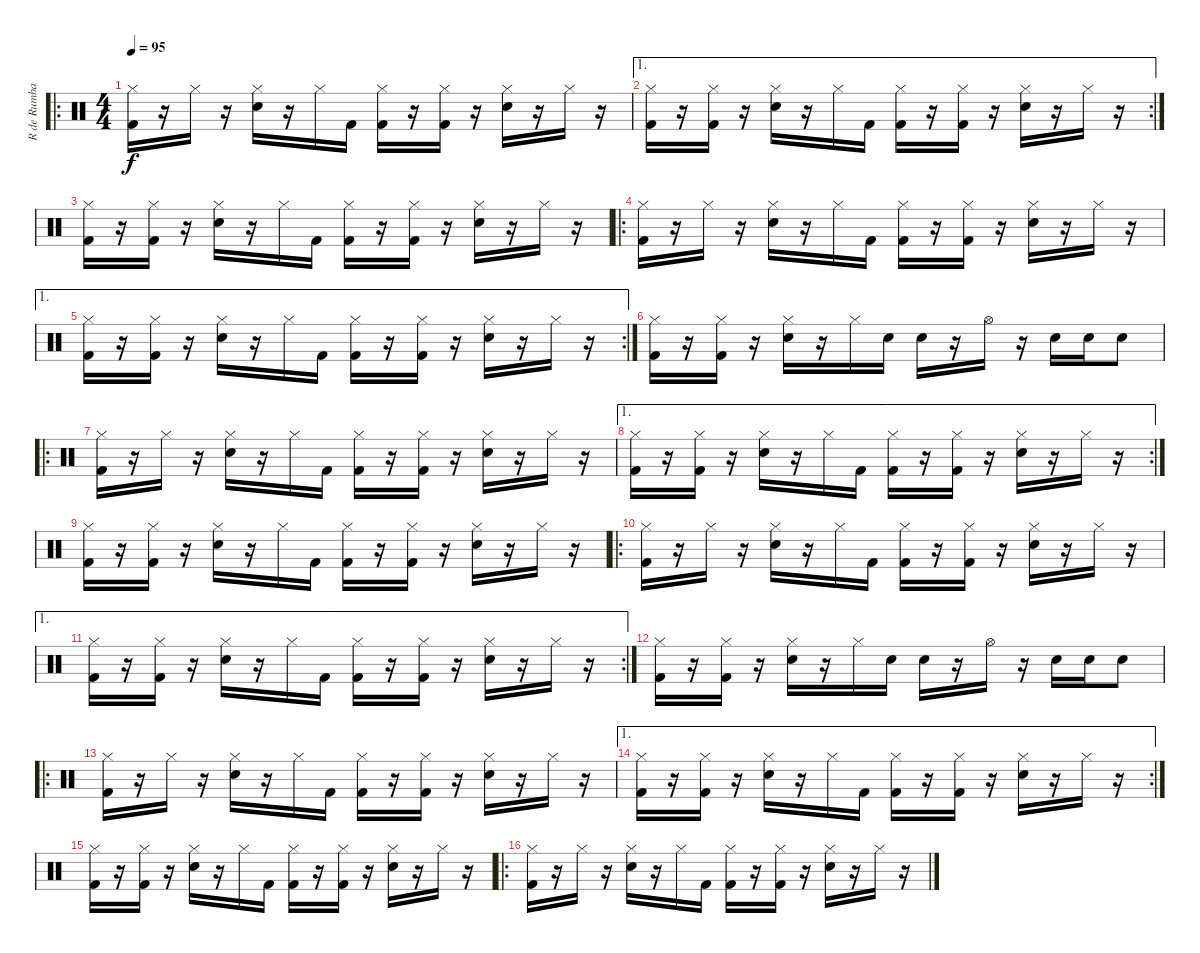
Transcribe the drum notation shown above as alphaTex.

\track ("R de Rumba" "R de Rumba") {instrument percussion}
\staff {score}
\articulation defaults
\ro
\ts (4 4)
\tempo 95
\clef neutral
\ks c
("Hi-Hat (closed)" "Kick (hit) 2").16{dy f} r.16 "Hi-Hat (closed)".16 r.16 ("Hi-Hat (closed)" "Snare (hit) 2").16 r.16 "Hi-Hat (closed)".16 "Kick (hit) 2".16 ("Hi-Hat (closed)" "Kick (hit) 2").16 r.16 ("Hi-Hat (closed)" "Kick (hit) 2").16 r.16 ("Hi-Hat (closed)" "Snare (hit) 2").16 r.16 "Hi-Hat (closed)".16 r.16 |
\ae 1
\rc 2
("Hi-Hat (closed)" "Kick (hit) 2").16 r.16 ("Hi-Hat (closed)" "Kick (hit) 2").16 r.16 ("Hi-Hat (closed)" "Snare (hit) 2").16 r.16 "Hi-Hat (closed)".16 "Kick (hit) 2".16 ("Hi-Hat (closed)" "Kick (hit) 2").16 r.16 ("Hi-Hat (closed)" "Kick (hit) 2").16 r.16 ("Hi-Hat (closed)" "Snare (hit) 2").16 r.16 "Hi-Hat (closed)".16 r.16 |
("Hi-Hat (closed)" "Kick (hit) 2").16 r.16 ("Hi-Hat (closed)" "Kick (hit) 2").16 r.16 ("Hi-Hat (closed)" "Snare (hit) 2").16 r.16 "Hi-Hat (closed)".16 "Kick (hit) 2".16 ("Hi-Hat (closed)" "Kick (hit) 2").16 r.16 ("Hi-Hat (closed)" "Kick (hit) 2").16 r.16 ("Hi-Hat (closed)" "Snare (hit) 2").16 r.16 "Hi-Hat (closed)".16 r.16 |
\ro
("Hi-Hat (closed)" "Kick (hit) 2").16 r.16 "Hi-Hat (closed)".16 r.16 ("Hi-Hat (closed)" "Snare (hit) 2").16 r.16 "Hi-Hat (closed)".16 "Kick (hit) 2".16 ("Hi-Hat (closed)" "Kick (hit) 2").16 r.16 ("Hi-Hat (closed)" "Kick (hit) 2").16 r.16 ("Hi-Hat (closed)" "Snare (hit) 2").16 r.16 "Hi-Hat (closed)".16 r.16 |
\ae 1
\rc 2
("Hi-Hat (closed)" "Kick (hit) 2").16 r.16 ("Hi-Hat (closed)" "Kick (hit) 2").16 r.16 ("Hi-Hat (closed)" "Snare (hit) 2").16 r.16 "Hi-Hat (closed)".16 "Kick (hit) 2".16 ("Hi-Hat (closed)" "Kick (hit) 2").16 r.16 ("Hi-Hat (closed)" "Kick (hit) 2").16 r.16 ("Hi-Hat (closed)" "Snare (hit) 2").16 r.16 "Hi-Hat (closed)".16 r.16 |
("Hi-Hat (closed)" "Kick (hit) 2").16 r.16 ("Hi-Hat (closed)" "Kick (hit) 2").16 r.16 ("Hi-Hat (closed)" "Snare (hit) 2").16 r.16 "Hi-Hat (closed)".16 "Snare (hit) 2".16 "Snare (hit) 2".16 r.16 "Hi-Hat (open)".16 r.16 "Snare (hit) 2".16 "Snare (hit) 2".16 "Snare (hit) 2".8 |
\ro
("Hi-Hat (closed)" "Kick (hit) 2").16 r.16 "Hi-Hat (closed)".16 r.16 ("Hi-Hat (closed)" "Snare (hit) 2").16 r.16 "Hi-Hat (closed)".16 "Kick (hit) 2".16 ("Hi-Hat (closed)" "Kick (hit) 2").16 r.16 ("Hi-Hat (closed)" "Kick (hit) 2").16 r.16 ("Hi-Hat (closed)" "Snare (hit) 2").16 r.16 "Hi-Hat (closed)".16 r.16 |
\ae 1
\rc 2
("Hi-Hat (closed)" "Kick (hit) 2").16 r.16 ("Hi-Hat (closed)" "Kick (hit) 2").16 r.16 ("Hi-Hat (closed)" "Snare (hit) 2").16 r.16 "Hi-Hat (closed)".16 "Kick (hit) 2".16 ("Hi-Hat (closed)" "Kick (hit) 2").16 r.16 ("Hi-Hat (closed)" "Kick (hit) 2").16 r.16 ("Hi-Hat (closed)" "Snare (hit) 2").16 r.16 "Hi-Hat (closed)".16 r.16 |
("Hi-Hat (closed)" "Kick (hit) 2").16 r.16 ("Hi-Hat (closed)" "Kick (hit) 2").16 r.16 ("Hi-Hat (closed)" "Snare (hit) 2").16 r.16 "Hi-Hat (closed)".16 "Kick (hit) 2".16 ("Hi-Hat (closed)" "Kick (hit) 2").16 r.16 ("Hi-Hat (closed)" "Kick (hit) 2").16 r.16 ("Hi-Hat (closed)" "Snare (hit) 2").16 r.16 "Hi-Hat (closed)".16 r.16 |
\ro
("Hi-Hat (closed)" "Kick (hit) 2").16 r.16 "Hi-Hat (closed)".16 r.16 ("Hi-Hat (closed)" "Snare (hit) 2").16 r.16 "Hi-Hat (closed)".16 "Kick (hit) 2".16 ("Hi-Hat (closed)" "Kick (hit) 2").16 r.16 ("Hi-Hat (closed)" "Kick (hit) 2").16 r.16 ("Hi-Hat (closed)" "Snare (hit) 2").16 r.16 "Hi-Hat (closed)".16 r.16 |
\ae 1
\rc 2
("Hi-Hat (closed)" "Kick (hit) 2").16 r.16 ("Hi-Hat (closed)" "Kick (hit) 2").16 r.16 ("Hi-Hat (closed)" "Snare (hit) 2").16 r.16 "Hi-Hat (closed)".16 "Kick (hit) 2".16 ("Hi-Hat (closed)" "Kick (hit) 2").16 r.16 ("Hi-Hat (closed)" "Kick (hit) 2").16 r.16 ("Hi-Hat (closed)" "Snare (hit) 2").16 r.16 "Hi-Hat (closed)".16 r.16 |
("Hi-Hat (closed)" "Kick (hit) 2").16 r.16 ("Hi-Hat (closed)" "Kick (hit) 2").16 r.16 ("Hi-Hat (closed)" "Snare (hit) 2").16 r.16 "Hi-Hat (closed)".16 "Snare (hit) 2".16 "Snare (hit) 2".16 r.16 "Hi-Hat (open)".16 r.16 "Snare (hit) 2".16 "Snare (hit) 2".16 "Snare (hit) 2".8 |
\ro
("Hi-Hat (closed)" "Kick (hit) 2").16 r.16 "Hi-Hat (closed)".16 r.16 ("Hi-Hat (closed)" "Snare (hit) 2").16 r.16 "Hi-Hat (closed)".16 "Kick (hit) 2".16 ("Hi-Hat (closed)" "Kick (hit) 2").16 r.16 ("Hi-Hat (closed)" "Kick (hit) 2").16 r.16 ("Hi-Hat (closed)" "Snare (hit) 2").16 r.16 "Hi-Hat (closed)".16 r.16 |
\ae 1
\rc 2
("Hi-Hat (closed)" "Kick (hit) 2").16 r.16 ("Hi-Hat (closed)" "Kick (hit) 2").16 r.16 ("Hi-Hat (closed)" "Snare (hit) 2").16 r.16 "Hi-Hat (closed)".16 "Kick (hit) 2".16 ("Hi-Hat (closed)" "Kick (hit) 2").16 r.16 ("Hi-Hat (closed)" "Kick (hit) 2").16 r.16 ("Hi-Hat (closed)" "Snare (hit) 2").16 r.16 "Hi-Hat (closed)".16 r.16 |
("Hi-Hat (closed)" "Kick (hit) 2").16 r.16 ("Hi-Hat (closed)" "Kick (hit) 2").16 r.16 ("Hi-Hat (closed)" "Snare (hit) 2").16 r.16 "Hi-Hat (closed)".16 "Kick (hit) 2".16 ("Hi-Hat (closed)" "Kick (hit) 2").16 r.16 ("Hi-Hat (closed)" "Kick (hit) 2").16 r.16 ("Hi-Hat (closed)" "Snare (hit) 2").16 r.16 "Hi-Hat (closed)".16 r.16 |
\ro
("Hi-Hat (closed)" "Kick (hit) 2").16 r.16 "Hi-Hat (closed)".16 r.16 ("Hi-Hat (closed)" "Snare (hit) 2").16 r.16 "Hi-Hat (closed)".16 "Kick (hit) 2".16 ("Hi-Hat (closed)" "Kick (hit) 2").16 r.16 ("Hi-Hat (closed)" "Kick (hit) 2").16 r.16 ("Hi-Hat (closed)" "Snare (hit) 2").16 r.16 "Hi-Hat (closed)".16 r.16
